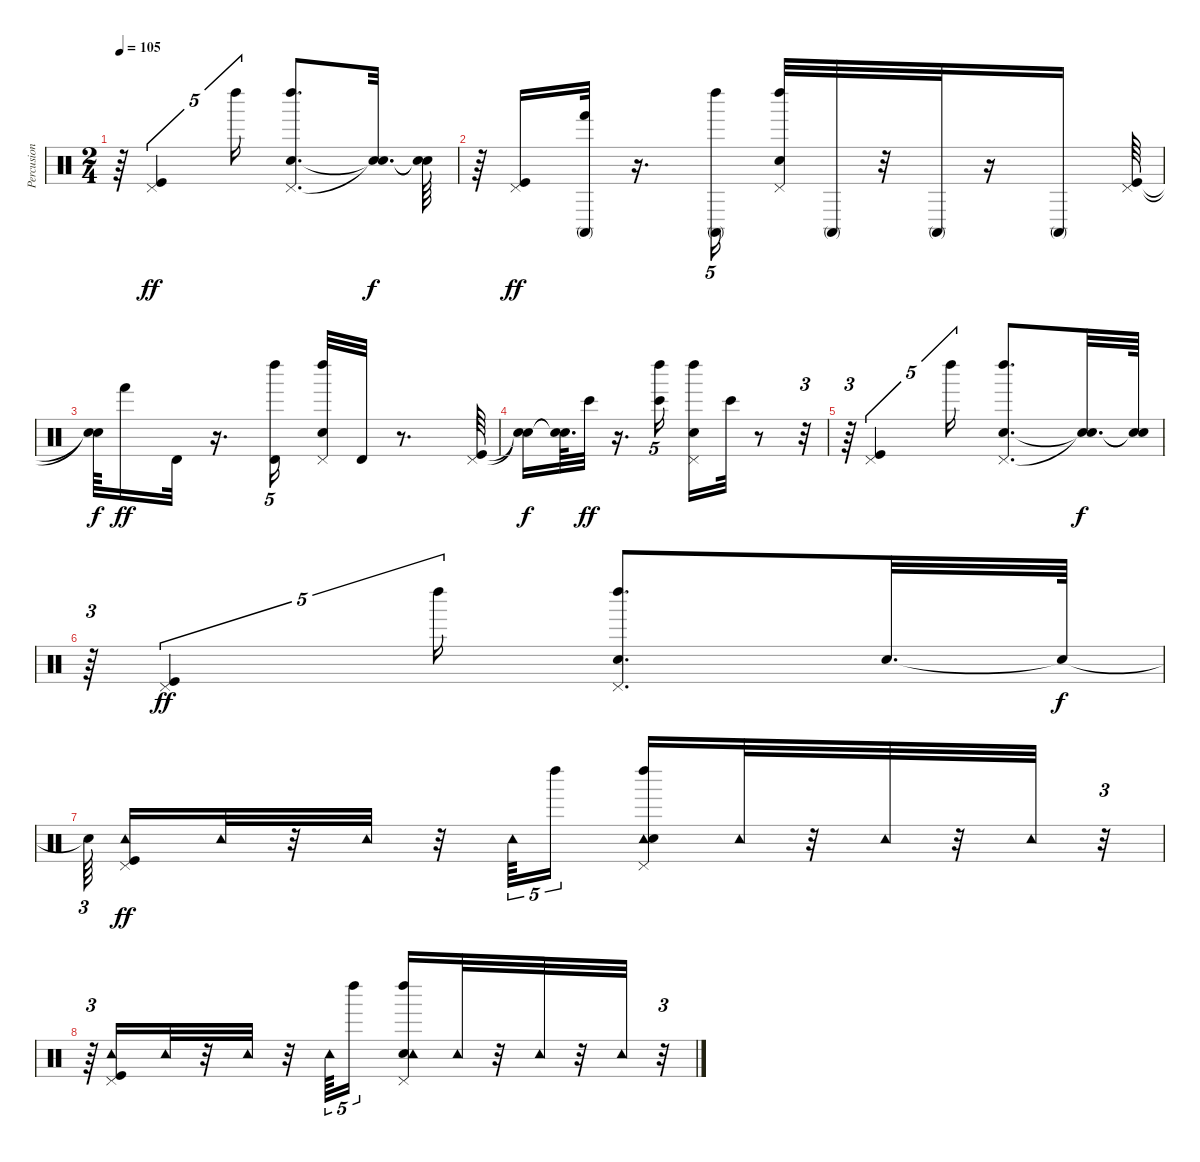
\track ("Percusion" "Percusion") {instrument percussion}
\staff {score}
\articulation defaults
\ts (2 4)
\tempo 105
\clef neutral
\ks c
r.64{dy f} ("Pedal Hi-Hat (hit)" "Kick (hit)").4{tu (5 4) dy ff} "Left Maraca (hit)".16{tu (5 4)} ("Pedal Hi-Hat (hit)" "Electric Snare (hit)" "Left Maraca (hit)").8{d} ("Snare (hit)"{t} "Snare (hit)"{t}).32{d dy f} ("Snare (hit)"{t} "Snare (hit)"{t}).64 |
r.64 ("Pedal Hi-Hat (hit)" "Kick (hit)").16{dy ff} ("Hand (hit)" "Conga high (mute)").32 r.16{d} ("Conga high (mute)" "Left Maraca (hit)").16{tu (5 4)} ("Electric Snare (hit)" "Pedal Hi-Hat (hit)" "Left Maraca (hit)").32 "Conga high (mute)".32 r.32 "Conga high (mute)".32 r.16 "Conga high (mute)".16 ("Kick (hit)" "Pedal Hi-Hat (hit)").64 |
("Snare (hit)"{t} "Snare (hit)"{t}).64{dy f} "Hand (hit)".16{dy ff} "Timbale high (hit)".32 r.16{d} ("Timbale high (hit)" "Left Maraca (hit)").16{tu (5 4)} ("Electric Snare (hit)" "Pedal Hi-Hat (hit)" "Left Maraca (hit)").32 "Timbale high (hit)".32 r.8{d} ("Pedal Hi-Hat (hit)" "Kick (hit)").64 |
("Snare (hit)"{t} "Snare (hit)"{t}).16{dy f} ("Snare (hit)"{t} "Snare (hit)"{t}).64{d} "Bongo High (hit)".32{dy ff} r.16{d} ("Bongo High (hit)" "Left Maraca (hit)").16{tu (5 4)} ("Electric Snare (hit)" "Pedal Hi-Hat (hit)" "Left Maraca (hit)").16 "Bongo High (hit)".32 r.8 r.32{tu (3 2)} |
r.64{tu (3 2)} ("Pedal Hi-Hat (hit)" "Kick (hit)").4{tu (5 4)} "Left Maraca (hit)".16{tu (5 4)} ("Pedal Hi-Hat (hit)" "Electric Snare (hit)" "Left Maraca (hit)").8{d} ("Snare (hit)"{t} "Snare (hit)"{t}).32{d dy f} ("Snare (hit)"{t} "Snare (hit)"{t}).64 |
r.64{tu (3 2)} ("Pedal Hi-Hat (hit)" "Kick (hit)").4{tu (5 4) dy ff} "Left Maraca (hit)".16{tu (5 4)} ("Pedal Hi-Hat (hit)" "Electric Snare (hit)" "Left Maraca (hit)").8{d} "Electric Snare (hit)".32{d} "Snare (hit)"{t}.64{dy f} |
"Snare (hit)"{t}.64{tu (3 2) beam splitsecondary} ("Pedal Hi-Hat (hit)" "Tambourine (hit)" "Kick (hit)").16{dy ff} "Tambourine (hit)".32 r.32 "Tambourine (hit)".32 r.32 "Tambourine (hit)".64{tu (5 4)} "Left Maraca (hit)".16{tu (5 4)} ("Tambourine (hit)" "Electric Snare (hit)" "Pedal Hi-Hat (hit)" "Left Maraca (hit)").16 "Tambourine (hit)".32 r.32 "Tambourine (hit)".32 r.32 "Tambourine (hit)".32 r.32{tu (3 2)} |
r.64{tu (3 2)} ("Kick (hit)" "Tambourine (hit)" "Pedal Hi-Hat (hit)").16 "Tambourine (hit)".32 r.32 "Tambourine (hit)".32 r.32 "Tambourine (hit)".64{tu (5 4)} "Left Maraca (hit)".16{tu (5 4)} ("Pedal Hi-Hat (hit)" "Electric Snare (hit)" "Tambourine (hit)" "Left Maraca (hit)").16 "Tambourine (hit)".32 r.32 "Tambourine (hit)".32 r.32 "Tambourine (hit)".32 r.32{tu (3 2)}
